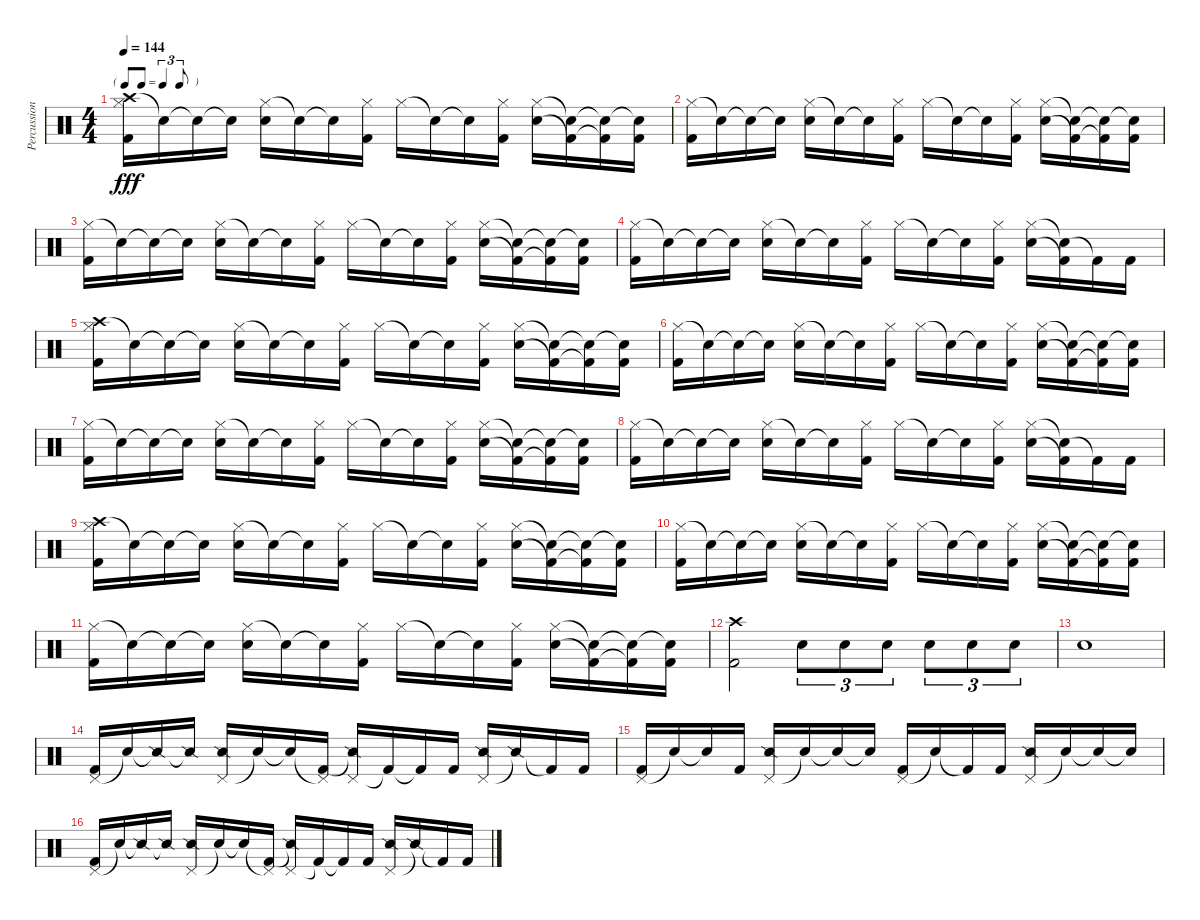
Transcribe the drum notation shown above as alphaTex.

\track ("Percussion" "Percussion") {instrument percussion}
\staff {score}
\articulation defaults
\ts (4 4)
\tf triplet8th
\tempo 144
\clef neutral
\ks c
("Crash high (hit)" "Hi-Hat (closed)" "Kick (hit) 2").16{dy fff} "Snare (hit)"{t}.16 "Snare (hit)"{t}.16 "Snare (hit)"{t}.16 ("Hi-Hat (closed)" "Electric Snare (hit)").16 "Snare (hit)"{t}.16 "Snare (hit)"{t}.16 ("Hi-Hat (closed)" "Kick (hit) 2").16 "Hi-Hat (closed)".16 "Snare (hit)"{t}.16 "Snare (hit)"{t}.16 ("Hi-Hat (closed)" "Kick (hit) 2").16 ("Hi-Hat (closed)" "Electric Snare (hit)").16 ("Snare (hit)"{t} "Kick (hit) 2"{t}).16 ("Snare (hit)"{t} "Kick (hit) 2"{t}).16 ("Snare (hit)"{t} "Kick (hit) 2").16 |
("Hi-Hat (closed)" "Kick (hit) 2").16 "Snare (hit)"{t}.16 "Snare (hit)"{t}.16 "Snare (hit)"{t}.16 ("Hi-Hat (closed)" "Electric Snare (hit)").16 "Snare (hit)"{t}.16 "Snare (hit)"{t}.16 ("Hi-Hat (closed)" "Kick (hit) 2").16 "Hi-Hat (closed)".16 "Snare (hit)"{t}.16 "Snare (hit)"{t}.16 ("Hi-Hat (closed)" "Kick (hit) 2").16 ("Hi-Hat (closed)" "Electric Snare (hit)").16 ("Snare (hit)"{t} "Kick (hit) 2"{t}).16 ("Snare (hit)"{t} "Kick (hit) 2"{t}).16 ("Snare (hit)"{t} "Kick (hit) 2").16 |
("Hi-Hat (closed)" "Kick (hit) 2").16 "Snare (hit)"{t}.16 "Snare (hit)"{t}.16 "Snare (hit)"{t}.16 ("Hi-Hat (closed)" "Electric Snare (hit)").16 "Snare (hit)"{t}.16 "Snare (hit)"{t}.16 ("Hi-Hat (closed)" "Kick (hit) 2").16 "Hi-Hat (closed)".16 "Snare (hit)"{t}.16 "Snare (hit)"{t}.16 ("Hi-Hat (closed)" "Kick (hit) 2").16 ("Hi-Hat (closed)" "Electric Snare (hit)").16 ("Snare (hit)"{t} "Kick (hit) 2"{t}).16 ("Snare (hit)"{t} "Kick (hit) 2"{t}).16 ("Snare (hit)"{t} "Kick (hit) 2").16 |
("Hi-Hat (closed)" "Kick (hit) 2").16 "Snare (hit)"{t}.16 "Snare (hit)"{t}.16 "Snare (hit)"{t}.16 ("Hi-Hat (closed)" "Electric Snare (hit)").16 "Snare (hit)"{t}.16 "Snare (hit)"{t}.16 ("Hi-Hat (closed)" "Kick (hit) 2").16 "Hi-Hat (closed)".16 "Snare (hit)"{t}.16 "Snare (hit)"{t}.16 ("Hi-Hat (closed)" "Kick (hit) 2").16 ("Hi-Hat (closed)" "Electric Snare (hit)").16 ("Snare (hit)"{t} "Kick (hit) 2"{t}).16 "Kick (hit) 2"{t}.16 "Kick (hit) 2".16 |
("Crash high (hit)" "Hi-Hat (closed)" "Kick (hit) 2").16 "Snare (hit)"{t}.16 "Snare (hit)"{t}.16 "Snare (hit)"{t}.16 ("Hi-Hat (closed)" "Electric Snare (hit)").16 "Snare (hit)"{t}.16 "Snare (hit)"{t}.16 ("Hi-Hat (closed)" "Kick (hit) 2").16 "Hi-Hat (closed)".16 "Snare (hit)"{t}.16 "Snare (hit)"{t}.16 ("Hi-Hat (closed)" "Kick (hit) 2").16 ("Hi-Hat (closed)" "Electric Snare (hit)").16 ("Snare (hit)"{t} "Kick (hit) 2"{t}).16 ("Snare (hit)"{t} "Kick (hit) 2"{t}).16 ("Snare (hit)"{t} "Kick (hit) 2").16 |
("Hi-Hat (closed)" "Kick (hit) 2").16 "Snare (hit)"{t}.16 "Snare (hit)"{t}.16 "Snare (hit)"{t}.16 ("Hi-Hat (closed)" "Electric Snare (hit)").16 "Snare (hit)"{t}.16 "Snare (hit)"{t}.16 ("Hi-Hat (closed)" "Kick (hit) 2").16 "Hi-Hat (closed)".16 "Snare (hit)"{t}.16 "Snare (hit)"{t}.16 ("Hi-Hat (closed)" "Kick (hit) 2").16 ("Hi-Hat (closed)" "Electric Snare (hit)").16 ("Snare (hit)"{t} "Kick (hit) 2"{t}).16 ("Snare (hit)"{t} "Kick (hit) 2"{t}).16 ("Snare (hit)"{t} "Kick (hit) 2").16 |
("Hi-Hat (closed)" "Kick (hit) 2").16 "Snare (hit)"{t}.16 "Snare (hit)"{t}.16 "Snare (hit)"{t}.16 ("Hi-Hat (closed)" "Electric Snare (hit)").16 "Snare (hit)"{t}.16 "Snare (hit)"{t}.16 ("Hi-Hat (closed)" "Kick (hit) 2").16 "Hi-Hat (closed)".16 "Snare (hit)"{t}.16 "Snare (hit)"{t}.16 ("Hi-Hat (closed)" "Kick (hit) 2").16 ("Hi-Hat (closed)" "Electric Snare (hit)").16 ("Snare (hit)"{t} "Kick (hit) 2"{t}).16 ("Snare (hit)"{t} "Kick (hit) 2"{t}).16 ("Snare (hit)"{t} "Kick (hit) 2").16 |
("Hi-Hat (closed)" "Kick (hit) 2").16 "Snare (hit)"{t}.16 "Snare (hit)"{t}.16 "Snare (hit)"{t}.16 ("Hi-Hat (closed)" "Electric Snare (hit)").16 "Snare (hit)"{t}.16 "Snare (hit)"{t}.16 ("Hi-Hat (closed)" "Kick (hit) 2").16 "Hi-Hat (closed)".16 "Snare (hit)"{t}.16 "Snare (hit)"{t}.16 ("Hi-Hat (closed)" "Kick (hit) 2").16 ("Hi-Hat (closed)" "Electric Snare (hit)").16 ("Snare (hit)"{t} "Kick (hit) 2"{t}).16 "Kick (hit) 2"{t}.16 "Kick (hit) 2".16 |
("Crash high (hit)" "Hi-Hat (closed)" "Kick (hit) 2").16 "Snare (hit)"{t}.16 "Snare (hit)"{t}.16 "Snare (hit)"{t}.16 ("Hi-Hat (closed)" "Electric Snare (hit)").16 "Snare (hit)"{t}.16 "Snare (hit)"{t}.16 ("Hi-Hat (closed)" "Kick (hit) 2").16 "Hi-Hat (closed)".16 "Snare (hit)"{t}.16 "Snare (hit)"{t}.16 ("Hi-Hat (closed)" "Kick (hit) 2").16 ("Hi-Hat (closed)" "Electric Snare (hit)").16 ("Snare (hit)"{t} "Kick (hit) 2"{t}).16 ("Snare (hit)"{t} "Kick (hit) 2"{t}).16 ("Snare (hit)"{t} "Kick (hit) 2").16 |
("Hi-Hat (closed)" "Kick (hit) 2").16 "Snare (hit)"{t}.16 "Snare (hit)"{t}.16 "Snare (hit)"{t}.16 ("Hi-Hat (closed)" "Electric Snare (hit)").16 "Snare (hit)"{t}.16 "Snare (hit)"{t}.16 ("Hi-Hat (closed)" "Kick (hit) 2").16 "Hi-Hat (closed)".16 "Snare (hit)"{t}.16 "Snare (hit)"{t}.16 ("Hi-Hat (closed)" "Kick (hit) 2").16 ("Hi-Hat (closed)" "Electric Snare (hit)").16 ("Snare (hit)"{t} "Kick (hit) 2"{t}).16 ("Snare (hit)"{t} "Kick (hit) 2"{t}).16 ("Snare (hit)"{t} "Kick (hit) 2").16 |
("Hi-Hat (closed)" "Kick (hit) 2").16 "Snare (hit)"{t}.16 "Snare (hit)"{t}.16 "Snare (hit)"{t}.16 ("Hi-Hat (closed)" "Electric Snare (hit)").16 "Snare (hit)"{t}.16 "Snare (hit)"{t}.16 ("Hi-Hat (closed)" "Kick (hit) 2").16 "Hi-Hat (closed)".16 "Snare (hit)"{t}.16 "Snare (hit)"{t}.16 ("Hi-Hat (closed)" "Kick (hit) 2").16 ("Hi-Hat (closed)" "Electric Snare (hit)").16 ("Snare (hit)"{t} "Kick (hit) 2"{t}).16 ("Snare (hit)"{t} "Kick (hit) 2"{t}).16 ("Snare (hit)"{t} "Kick (hit) 2").16 |
("Crash high (hit)" "Kick (hit) 2").2 "Electric Snare (hit)".8{tu (3 2)} "Electric Snare (hit)".8{tu (3 2)} "Electric Snare (hit)".8{tu (3 2)} "Electric Snare (hit)".8{tu (3 2)} "Electric Snare (hit)".8{tu (3 2)} "Electric Snare (hit)".8{tu (3 2)} |
"Electric Snare (hit)".1 |
("Pedal Hi-Hat (hit)" "Kick (hit) 2").16 "Snare (hit)"{t}.16 "Snare (side stick) 2"{t}.16 "Snare (side stick) 2"{t}.16 ("Pedal Hi-Hat (hit)" "Snare (side stick) 2").16 "Snare (hit)"{t}.16 "Snare (hit)"{t}.16 ("Pedal Hi-Hat (hit)"{t} "Kick (hit) 2").16 ("Pedal Hi-Hat (hit)" "Snare (side stick) 2"{t}).16 "Kick (hit) 2"{t}.16 "Kick (hit) 2"{t}.16 "Kick (hit) 2".16 ("Pedal Hi-Hat (hit)" "Snare (side stick) 2").16 "Snare (side stick) 2"{t}.16 "Kick (hit) 2"{t}.16 "Kick (hit) 2".16 |
("Pedal Hi-Hat (hit)" "Kick (hit) 2").16 "Snare (hit)"{t}.16 "Snare (hit)"{t}.16 "Kick (hit) 2".16 ("Pedal Hi-Hat (hit)" "Snare (side stick) 2").16 "Snare (hit)"{t}.16 "Snare (hit)"{t}.16 "Snare (hit)"{t}.16 ("Pedal Hi-Hat (hit)" "Kick (hit) 2").16 "Snare (hit)"{t}.16 "Kick (hit) 2"{t}.16 "Kick (hit) 2".16 ("Pedal Hi-Hat (hit)" "Snare (side stick) 2").16 "Snare (hit)"{t}.16 "Snare (hit)"{t}.16 "Snare (hit)"{t}.16 |
("Pedal Hi-Hat (hit)" "Kick (hit) 2").16 "Snare (hit)"{t}.16 "Snare (side stick) 2"{t}.16 "Snare (side stick) 2"{t}.16 ("Pedal Hi-Hat (hit)" "Snare (side stick) 2").16 "Snare (hit)"{t}.16 "Snare (hit)"{t}.16 ("Pedal Hi-Hat (hit)"{t} "Kick (hit) 2").16 ("Pedal Hi-Hat (hit)" "Snare (side stick) 2"{t}).16 "Kick (hit) 2"{t}.16 "Kick (hit) 2"{t}.16 "Kick (hit) 2".16 ("Pedal Hi-Hat (hit)" "Snare (side stick) 2").16 "Snare (side stick) 2"{t}.16 "Kick (hit) 2"{t}.16 "Kick (hit) 2".16
